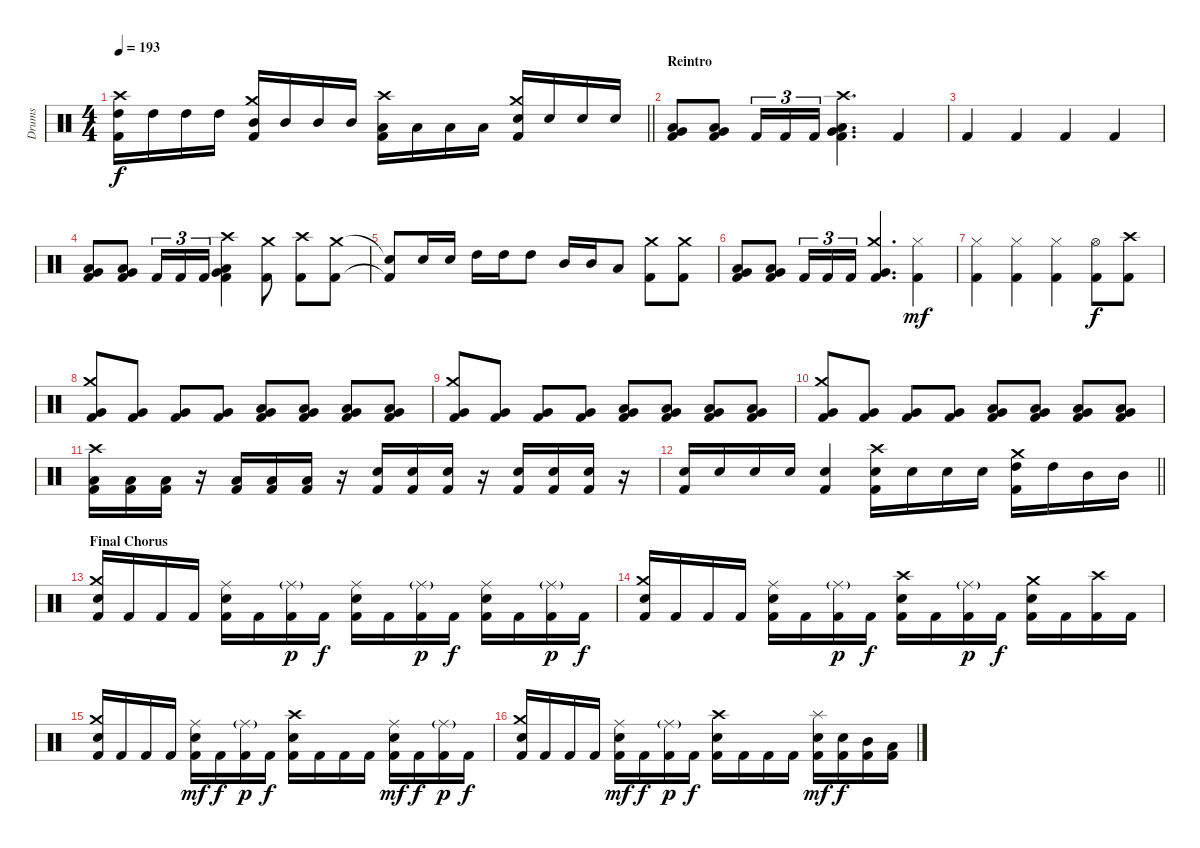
\track ("Drums" "Drums") {instrument percussion}
\staff {score}
\articulation defaults
\ts (4 4)
\tempo 193
\clef neutral
\barLineRight lightlight
\ks c
("Crash high (hit)" "High Tom (hit)" "Kick (hit) 2").16{dy f} "High Tom (hit)".16 "High Tom (hit)".16 "High Tom (hit)".16 ("Crash medium (hit)" "Mid Tom (hit)" "Kick (hit) 2").16 "Mid Tom (hit)".16 "Mid Tom (hit)".16 "Mid Tom (hit)".16 ("Crash high (hit)" "Low Tom (hit)" "Kick (hit) 2").16 "Low Tom (hit)".16 "Low Tom (hit)".16 "Low Tom (hit)".16 ("Crash medium (hit)" "Snare (hit) 2" "Kick (hit) 2").16 "Snare (hit) 2".16 "Snare (hit) 2".16 "Snare (hit) 2".16 |
\section ("" "Reintro")
("Low Tom (hit)" "Very Low Tom (hit)" "Kick (hit) 2").8 ("Low Tom (hit)" "Very Low Tom (hit)" "Kick (hit) 2").8 "Kick (hit) 2".16{tu (3 2)} "Kick (hit) 2".16{tu (3 2)} "Kick (hit) 2".16{tu (3 2)} ("Crash high (hit)" "Low Tom (hit)" "Very Low Tom (hit)" "Kick (hit) 2").4{d} "Kick (hit) 2".4 |
"Kick (hit) 2".4 "Kick (hit) 2".4 "Kick (hit) 2".4 "Kick (hit) 2".4 |
("Low Tom (hit)" "Very Low Tom (hit)" "Kick (hit) 2").8 ("Low Tom (hit)" "Very Low Tom (hit)" "Kick (hit) 2").8 "Kick (hit) 2".16{tu (3 2)} "Kick (hit) 2".16{tu (3 2)} "Kick (hit) 2".16{tu (3 2)} ("Crash high (hit)" "Low Tom (hit)" "Very Low Tom (hit)" "Kick (hit) 2").4 ("Crash medium (hit)" "Kick (hit) 2").8 ("Crash high (hit)" "Kick (hit) 2").8 ("Crash medium (hit)" "Kick (hit) 2").8 |
("Snare (hit)"{t} "Kick (hit) 2"{t}).8 "Snare (hit) 2".16 "Snare (hit) 2".16 "High Tom (hit)".16 "High Tom (hit)".16 "High Tom (hit)".8 "Mid Tom (hit)".16 "Mid Tom (hit)".16 "Low Tom (hit)".8 ("Crash medium (hit)" "Kick (hit) 2").8 ("Crash medium (hit)" "Kick (hit) 2").8 |
("Low Tom (hit)" "Very Low Tom (hit)" "Kick (hit) 2").8 ("Low Tom (hit)" "Very Low Tom (hit)" "Kick (hit) 2").8 "Kick (hit) 2".16{tu (3 2)} "Kick (hit) 2".16{tu (3 2)} "Kick (hit) 2".16{tu (3 2)} ("Crash medium (hit)" "Very Low Tom (hit)" "Kick (hit) 2").4{d} ("Hi-Hat (closed)" "Kick (hit) 2").4{dy mf} |
("Hi-Hat (closed)" "Kick (hit) 2").4 ("Hi-Hat (closed)" "Kick (hit) 2").4 ("Hi-Hat (closed)" "Kick (hit) 2").4 ("Hi-Hat (open)" "Kick (hit) 2").8{dy f} ("Crash high (hit)" "Kick (hit) 2").8 |
("Crash medium (hit)" "Very Low Tom (hit)" "Kick (hit) 2").8 ("Very Low Tom (hit)" "Kick (hit) 2").8 ("Very Low Tom (hit)" "Kick (hit) 2").8 ("Very Low Tom (hit)" "Kick (hit) 2").8 ("Low Tom (hit)" "Very Low Tom (hit)" "Kick (hit) 2").8 ("Low Tom (hit)" "Very Low Tom (hit)" "Kick (hit) 2").8 ("Low Tom (hit)" "Very Low Tom (hit)" "Kick (hit) 2").8 ("Low Tom (hit)" "Very Low Tom (hit)" "Kick (hit) 2").8 |
("Crash medium (hit)" "Very Low Tom (hit)" "Kick (hit) 2").8 ("Very Low Tom (hit)" "Kick (hit) 2").8 ("Very Low Tom (hit)" "Kick (hit) 2").8 ("Very Low Tom (hit)" "Kick (hit) 2").8 ("Low Tom (hit)" "Very Low Tom (hit)" "Kick (hit) 2").8 ("Low Tom (hit)" "Very Low Tom (hit)" "Kick (hit) 2").8 ("Low Tom (hit)" "Very Low Tom (hit)" "Kick (hit) 2").8 ("Low Tom (hit)" "Very Low Tom (hit)" "Kick (hit) 2").8 |
("Crash medium (hit)" "Very Low Tom (hit)" "Kick (hit) 2").8 ("Very Low Tom (hit)" "Kick (hit) 2").8 ("Very Low Tom (hit)" "Kick (hit) 2").8 ("Very Low Tom (hit)" "Kick (hit) 2").8 ("Low Tom (hit)" "Very Low Tom (hit)" "Kick (hit) 2").8 ("Low Tom (hit)" "Very Low Tom (hit)" "Kick (hit) 2").8 ("Low Tom (hit)" "Very Low Tom (hit)" "Kick (hit) 2").8 ("Low Tom (hit)" "Very Low Tom (hit)" "Kick (hit) 2").8 |
("Crash high (hit)" "Low Floor Tom (hit)" "Kick (hit) 2").16 ("Low Floor Tom (hit)" "Kick (hit) 2").16 ("Low Floor Tom (hit)" "Kick (hit) 2").16 r.16 ("Low Floor Tom (hit)" "Kick (hit) 2").16 ("Low Floor Tom (hit)" "Kick (hit) 2").16 ("Low Floor Tom (hit)" "Kick (hit) 2").16 r.16 ("Snare (hit) 2" "Kick (hit) 2").16 ("Snare (hit) 2" "Kick (hit) 2").16 ("Snare (hit) 2" "Kick (hit) 2").16 r.16 ("Snare (hit) 2" "Kick (hit) 2").16 ("Snare (hit) 2" "Kick (hit) 2").16 ("Snare (hit) 2" "Kick (hit) 2").16 r.16 |
\barLineRight lightlight
("Snare (hit) 2" "Kick (hit) 2").16 "Snare (hit) 2".16 "Snare (hit) 2".16 "Snare (hit) 2".16 ("Snare (hit) 2" "Kick (hit) 2").4 ("Crash high (hit)" "Snare (hit) 2" "Kick (hit) 2").16 "Snare (hit) 2".16 "Snare (hit) 2".16 "Snare (hit) 2".16 ("Crash medium (hit)" "High Tom (hit)" "Kick (hit) 2").16 "High Tom (hit)".16 "Mid Tom (hit)".16 "Mid Tom (hit)".16 |
\section ("" "Final Chorus")
("Crash medium (hit)" "Snare (hit) 2" "Kick (hit) 2").16 "Kick (hit) 2".16 "Kick (hit) 2".16 "Kick (hit) 2".16 ("Ride (middle)" "Snare (hit) 2" "Kick (hit) 2").16 "Kick (hit) 2".16 ("Ride (middle)"{g} "Kick (hit) 2").16{dy p} "Kick (hit) 2".16{dy f} ("Ride (middle)" "Snare (hit) 2" "Kick (hit) 2").16 "Kick (hit) 2".16 ("Ride (middle)"{g} "Kick (hit) 2").16{dy p} "Kick (hit) 2".16{dy f} ("Ride (middle)" "Snare (hit) 2" "Kick (hit) 2").16 "Kick (hit) 2".16 ("Ride (middle)"{g} "Kick (hit) 2").16{dy p} "Kick (hit) 2".16{dy f} |
("Crash medium (hit)" "Snare (hit) 2" "Kick (hit) 2").16 "Kick (hit) 2".16 "Kick (hit) 2".16 "Kick (hit) 2".16 ("Ride (middle)" "Snare (hit) 2" "Kick (hit) 2").16 "Kick (hit) 2".16 ("Ride (middle)"{g} "Kick (hit) 2").16{dy p} "Kick (hit) 2".16{dy f} ("Crash high (hit)" "Snare (hit) 2" "Kick (hit) 2").16 "Kick (hit) 2".16 ("Ride (middle)"{g} "Kick (hit) 2").16{dy p} "Kick (hit) 2".16{dy f} ("Crash medium (hit)" "Snare (hit) 2" "Kick (hit) 2").16 "Kick (hit) 2".16 ("Crash high (hit)" "Kick (hit) 2").16 "Kick (hit) 2".16 |
("Crash medium (hit)" "Snare (hit) 2" "Kick (hit) 2").16 "Kick (hit) 2".16 "Kick (hit) 2".16 "Kick (hit) 2".16 ("Ride (middle)" "Snare (hit) 2" "Kick (hit) 2").16{dy mf} "Kick (hit) 2".16{dy f} ("Ride (middle)"{g} "Kick (hit) 2").16{dy p} "Kick (hit) 2".16{dy f} ("Crash high (hit)" "Snare (hit) 2" "Kick (hit) 2").16 "Kick (hit) 2".16 "Kick (hit) 2".16 "Kick (hit) 2".16 ("Ride (middle)" "Snare (hit) 2" "Kick (hit) 2").16{dy mf} "Kick (hit) 2".16{dy f} ("Ride (middle)"{g} "Kick (hit) 2").16{dy p} "Kick (hit) 2".16{dy f} |
("Crash medium (hit)" "Snare (hit) 2" "Kick (hit) 2").16 "Kick (hit) 2".16 "Kick (hit) 2".16 "Kick (hit) 2".16 ("Ride (middle)" "Snare (hit) 2" "Kick (hit) 2").16{dy mf} "Kick (hit) 2".16{dy f} ("Ride (middle)"{g} "Kick (hit) 2").16{dy p} "Kick (hit) 2".16{dy f} ("Crash high (hit)" "Snare (hit) 2" "Kick (hit) 2").16 "Kick (hit) 2".16 "Kick (hit) 2".16 "Kick (hit) 2".16 ("Splash (hit)" "Snare (hit) 2" "Kick (hit) 2").16{dy mf} ("Snare (hit) 2" "Kick (hit) 2").16{dy f} ("Mid Tom (hit)" "Kick (hit) 2").16 ("Low Tom (hit)" "Kick (hit) 2").16
